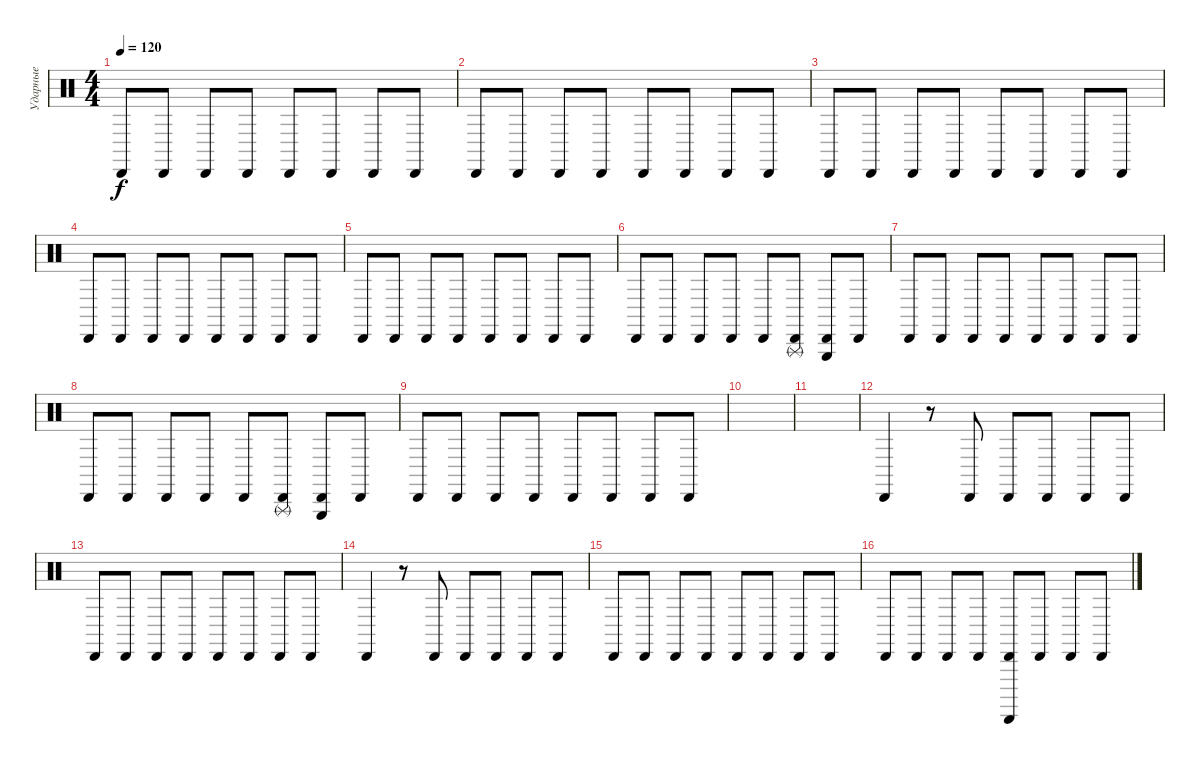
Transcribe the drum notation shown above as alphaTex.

\track ("Ударные" "Ударные") {instrument percussion}
\staff {score}
\articulation defaults
\ts (4 4)
\tempo 120
\clef neutral
\ks c "Cabasa (hit)".8{dy f} "Cabasa (hit)".8 "Cabasa (hit)".8 "Cabasa (hit)".8 "Cabasa (hit)".8 "Cabasa (hit)".8 "Cabasa (hit)".8 "Cabasa (hit)".8
|
"Cabasa (hit)".8 "Cabasa (hit)".8 "Cabasa (hit)".8 "Cabasa (hit)".8 "Cabasa (hit)".8 "Cabasa (hit)".8 "Cabasa (hit)".8 "Cabasa (hit)".8 |
"Cabasa (hit)".8 "Cabasa (hit)".8 "Cabasa (hit)".8 "Cabasa (hit)".8 "Cabasa (hit)".8 "Cabasa (hit)".8 "Cabasa (hit)".8 "Cabasa (hit)".8 |
"Cabasa (hit)".8 "Cabasa (hit)".8 "Cabasa (hit)".8 "Cabasa (hit)".8 "Cabasa (hit)".8 "Cabasa (hit)".8 "Cabasa (hit)".8 "Cabasa (hit)".8 |
"Cabasa (hit)".8 "Cabasa (hit)".8 "Cabasa (hit)".8 "Cabasa (hit)".8 "Cabasa (hit)".8 "Cabasa (hit)".8 "Cabasa (hit)".8 "Cabasa (hit)".8 |
"Cabasa (hit)".8 "Cabasa (hit)".8 "Cabasa (hit)".8 "Cabasa (hit)".8 "Cabasa (hit)".8 ("Cabasa (hit)" "Triangle (rnute)").8 ("Cabasa (hit)" "Triangle (hit)").8 "Cabasa (hit)".8 |
"Cabasa (hit)".8 "Cabasa (hit)".8 "Cabasa (hit)".8 "Cabasa (hit)".8 "Cabasa (hit)".8 "Cabasa (hit)".8 "Cabasa (hit)".8 "Cabasa (hit)".8 |
"Cabasa (hit)".8 "Cabasa (hit)".8 "Cabasa (hit)".8 "Cabasa (hit)".8 "Cabasa (hit)".8 ("Cabasa (hit)" "Triangle (rnute)").8 ("Cabasa (hit)" "Triangle (hit)").8 "Cabasa (hit)".8 |
"Cabasa (hit)".8 "Cabasa (hit)".8 "Cabasa (hit)".8 "Cabasa (hit)".8 "Cabasa (hit)".8 "Cabasa (hit)".8 "Cabasa (hit)".8 "Cabasa (hit)".8 |
|
|
"Cabasa (hit)".4 r.8 "Cabasa (hit)".8 "Cabasa (hit)".8 "Cabasa (hit)".8 "Cabasa (hit)".8 "Cabasa (hit)".8 |
"Cabasa (hit)".8 "Cabasa (hit)".8 "Cabasa (hit)".8 "Cabasa (hit)".8 "Cabasa (hit)".8 "Cabasa (hit)".8 "Cabasa (hit)".8 "Cabasa (hit)".8 |
"Cabasa (hit)".4 r.8 "Cabasa (hit)".8 "Cabasa (hit)".8 "Cabasa (hit)".8 "Cabasa (hit)".8 "Cabasa (hit)".8 |
"Cabasa (hit)".8 "Cabasa (hit)".8 "Cabasa (hit)".8 "Cabasa (hit)".8 "Cabasa (hit)".8 "Cabasa (hit)".8 "Cabasa (hit)".8 "Cabasa (hit)".8 |
"Cabasa (hit)".8 "Cabasa (hit)".8 "Cabasa (hit)".8 "Cabasa (hit)".8 ("Cabasa (hit)" "Guiro (scrap-return)").8 "Cabasa (hit)".8 "Cabasa (hit)".8 "Cabasa (hit)".8
